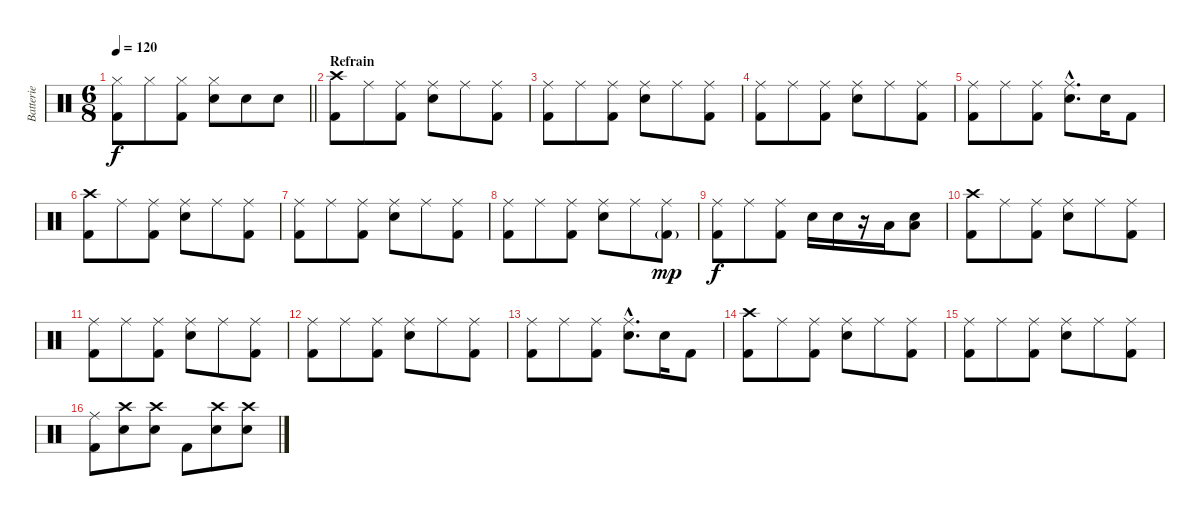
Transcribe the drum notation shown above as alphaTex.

\track ("Batterie" "Batterie") {instrument percussion}
\staff {score}
\articulation defaults
\ts (6 8)
\tempo 120
\clef neutral
\barLineRight lightlight
\ks c
("Hi-Hat (closed)" "Kick (hit) 2").8{dy f} "Hi-Hat (closed)".8 ("Hi-Hat (closed)" "Kick (hit) 2").8 ("Hi-Hat (closed)" "Snare (hit) 2").8 "Snare (hit) 2".8 "Snare (hit) 2".8 |
\section ("" "Refrain")
("Crash high (hit)" "Kick (hit) 2").8 "Ride (middle)".8 ("Ride (middle)" "Kick (hit) 2").8 ("Ride (middle)" "Snare (hit) 2").8 "Ride (middle)".8 ("Ride (middle)" "Kick (hit) 2").8 |
("Ride (middle)" "Kick (hit) 2").8 "Ride (middle)".8 ("Ride (middle)" "Kick (hit) 2").8 ("Ride (middle)" "Snare (hit) 2").8 "Ride (middle)".8 ("Ride (middle)" "Kick (hit) 2").8 |
("Ride (middle)" "Kick (hit) 2").8 "Ride (middle)".8 ("Ride (middle)" "Kick (hit) 2").8 ("Ride (middle)" "Snare (hit) 2").8 "Ride (middle)".8 ("Ride (middle)" "Kick (hit) 2").8 |
("Ride (middle)" "Kick (hit) 2").8 "Ride (middle)".8 ("Ride (middle)" "Kick (hit) 2").8 ("Ride (middle)"{hac} "Snare (hit) 2"{hac}).8{d} "Snare (hit) 2".16 "Kick (hit) 2".8 |
("Crash high (hit)" "Kick (hit) 2").8 "Ride (middle)".8 ("Ride (middle)" "Kick (hit) 2").8 ("Ride (middle)" "Snare (hit) 2").8 "Ride (middle)".8 ("Ride (middle)" "Kick (hit) 2").8 |
("Ride (middle)" "Kick (hit) 2").8 "Ride (middle)".8 ("Ride (middle)" "Kick (hit) 2").8 ("Ride (middle)" "Snare (hit) 2").8 "Ride (middle)".8 ("Ride (middle)" "Kick (hit) 2").8 |
("Ride (middle)" "Kick (hit) 2").8 "Ride (middle)".8 ("Ride (middle)" "Kick (hit) 2").8 ("Ride (middle)" "Snare (hit) 2").8 "Ride (middle)".8 ("Ride (middle)" "Kick (hit) 2"{g}).8{dy mp} |
("Ride (middle)" "Kick (hit) 2").8{dy f} "Ride (middle)".8 ("Ride (middle)" "Kick (hit) 2").8 "Snare (hit) 2".16 "Snare (hit) 2".16 r.16 "Low Tom (hit)".16 ("Low Tom (hit)" "Snare (hit) 2").8 |
("Crash high (hit)" "Kick (hit) 2").8 "Ride (middle)".8 ("Ride (middle)" "Kick (hit) 2").8 ("Ride (middle)" "Snare (hit) 2").8 "Ride (middle)".8 ("Ride (middle)" "Kick (hit) 2").8 |
("Ride (middle)" "Kick (hit) 2").8 "Ride (middle)".8 ("Ride (middle)" "Kick (hit) 2").8 ("Ride (middle)" "Snare (hit) 2").8 "Ride (middle)".8 ("Ride (middle)" "Kick (hit) 2").8 |
("Ride (middle)" "Kick (hit) 2").8 "Ride (middle)".8 ("Ride (middle)" "Kick (hit) 2").8 ("Ride (middle)" "Snare (hit) 2").8 "Ride (middle)".8 ("Ride (middle)" "Kick (hit) 2").8 |
("Ride (middle)" "Kick (hit) 2").8 "Ride (middle)".8 ("Ride (middle)" "Kick (hit) 2").8 ("Ride (middle)"{hac} "Snare (hit) 2"{hac}).8{d} "Snare (hit) 2".16 "Kick (hit) 2".8 |
("Crash high (hit)" "Kick (hit) 2").8 "Ride (middle)".8 ("Ride (middle)" "Kick (hit) 2").8 ("Ride (middle)" "Snare (hit) 2").8 "Ride (middle)".8 ("Ride (middle)" "Kick (hit) 2").8 |
("Ride (middle)" "Kick (hit) 2").8 "Ride (middle)".8 ("Ride (middle)" "Kick (hit) 2").8 ("Ride (middle)" "Snare (hit) 2").8 "Ride (middle)".8 ("Ride (middle)" "Kick (hit) 2").8 |
("Ride (middle)" "Kick (hit) 2").8 ("Crash high (hit)" "Snare (hit) 2").8 ("Crash high (hit)" "Snare (hit) 2").8 "Kick (hit) 2".8 ("Crash high (hit)" "Snare (hit) 2").8 ("Crash high (hit)" "Snare (hit) 2").8
